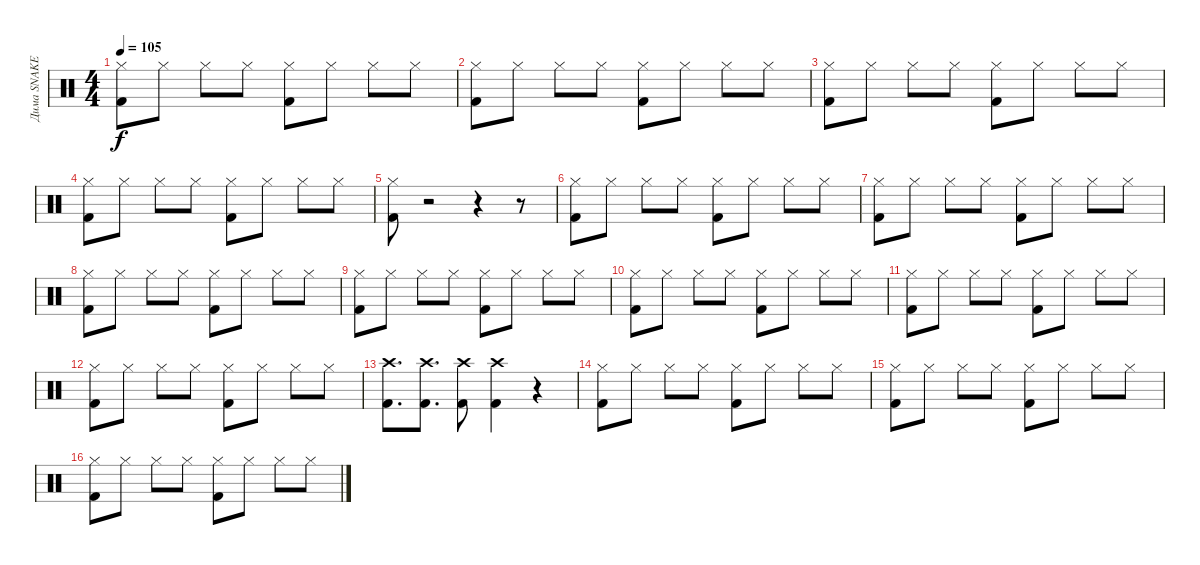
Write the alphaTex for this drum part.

\track ("Дима SNAKE" "Дима SNAKE") {instrument percussion}
\staff {score}
\articulation defaults
\ts (4 4)
\tempo 105
\clef neutral
\ks c
("Hi-Hat (closed)" "Kick (hit) 2").8{dy f} "Hi-Hat (closed)".8 "Hi-Hat (closed)".8 "Hi-Hat (closed)".8 ("Hi-Hat (closed)" "Kick (hit) 2").8 "Hi-Hat (closed)".8 "Hi-Hat (closed)".8 "Hi-Hat (closed)".8 |
("Hi-Hat (closed)" "Kick (hit) 2").8 "Hi-Hat (closed)".8 "Hi-Hat (closed)".8 "Hi-Hat (closed)".8 ("Hi-Hat (closed)" "Kick (hit) 2").8 "Hi-Hat (closed)".8 "Hi-Hat (closed)".8 "Hi-Hat (closed)".8 |
("Hi-Hat (closed)" "Kick (hit) 2").8 "Hi-Hat (closed)".8 "Hi-Hat (closed)".8 "Hi-Hat (closed)".8 ("Hi-Hat (closed)" "Kick (hit) 2").8 "Hi-Hat (closed)".8 "Hi-Hat (closed)".8 "Hi-Hat (closed)".8 |
("Hi-Hat (closed)" "Kick (hit) 2").8 "Hi-Hat (closed)".8 "Hi-Hat (closed)".8 "Hi-Hat (closed)".8 ("Hi-Hat (closed)" "Kick (hit) 2").8 "Hi-Hat (closed)".8 "Hi-Hat (closed)".8 "Hi-Hat (closed)".8 |
("Hi-Hat (closed)" "Kick (hit) 2").8 r.2 r.4 r.8 |
("Hi-Hat (closed)" "Kick (hit) 2").8 "Hi-Hat (closed)".8 "Hi-Hat (closed)".8 "Hi-Hat (closed)".8 ("Hi-Hat (closed)" "Kick (hit) 2").8 "Hi-Hat (closed)".8 "Hi-Hat (closed)".8 "Hi-Hat (closed)".8 |
("Hi-Hat (closed)" "Kick (hit) 2").8 "Hi-Hat (closed)".8 "Hi-Hat (closed)".8 "Hi-Hat (closed)".8 ("Hi-Hat (closed)" "Kick (hit) 2").8 "Hi-Hat (closed)".8 "Hi-Hat (closed)".8 "Hi-Hat (closed)".8 |
("Hi-Hat (closed)" "Kick (hit) 2").8 "Hi-Hat (closed)".8 "Hi-Hat (closed)".8 "Hi-Hat (closed)".8 ("Hi-Hat (closed)" "Kick (hit) 2").8 "Hi-Hat (closed)".8 "Hi-Hat (closed)".8 "Hi-Hat (closed)".8 |
("Hi-Hat (closed)" "Kick (hit) 2").8 "Hi-Hat (closed)".8 "Hi-Hat (closed)".8 "Hi-Hat (closed)".8 ("Hi-Hat (closed)" "Kick (hit) 2").8 "Hi-Hat (closed)".8 "Hi-Hat (closed)".8 "Hi-Hat (closed)".8 |
("Hi-Hat (closed)" "Kick (hit) 2").8 "Hi-Hat (closed)".8 "Hi-Hat (closed)".8 "Hi-Hat (closed)".8 ("Hi-Hat (closed)" "Kick (hit) 2").8 "Hi-Hat (closed)".8 "Hi-Hat (closed)".8 "Hi-Hat (closed)".8 |
("Hi-Hat (closed)" "Kick (hit) 2").8 "Hi-Hat (closed)".8 "Hi-Hat (closed)".8 "Hi-Hat (closed)".8 ("Hi-Hat (closed)" "Kick (hit) 2").8 "Hi-Hat (closed)".8 "Hi-Hat (closed)".8 "Hi-Hat (closed)".8 |
("Hi-Hat (closed)" "Kick (hit) 2").8 "Hi-Hat (closed)".8 "Hi-Hat (closed)".8 "Hi-Hat (closed)".8 ("Hi-Hat (closed)" "Kick (hit) 2").8 "Hi-Hat (closed)".8 "Hi-Hat (closed)".8 "Hi-Hat (closed)".8 |
("Crash high (hit)" "Kick (hit) 2").8{d} ("Crash high (hit)" "Kick (hit) 2").8{d} ("Crash high (hit)" "Kick (hit) 2").8 ("Crash high (hit)" "Kick (hit) 2").4 r.4 |
("Hi-Hat (closed)" "Kick (hit) 2").8 "Hi-Hat (closed)".8 "Hi-Hat (closed)".8 "Hi-Hat (closed)".8 ("Hi-Hat (closed)" "Kick (hit) 2").8 "Hi-Hat (closed)".8 "Hi-Hat (closed)".8 "Hi-Hat (closed)".8 |
("Hi-Hat (closed)" "Kick (hit) 2").8 "Hi-Hat (closed)".8 "Hi-Hat (closed)".8 "Hi-Hat (closed)".8 ("Hi-Hat (closed)" "Kick (hit) 2").8 "Hi-Hat (closed)".8 "Hi-Hat (closed)".8 "Hi-Hat (closed)".8 |
("Hi-Hat (closed)" "Kick (hit) 2").8 "Hi-Hat (closed)".8 "Hi-Hat (closed)".8 "Hi-Hat (closed)".8 ("Hi-Hat (closed)" "Kick (hit) 2").8 "Hi-Hat (closed)".8 "Hi-Hat (closed)".8 "Hi-Hat (closed)".8
